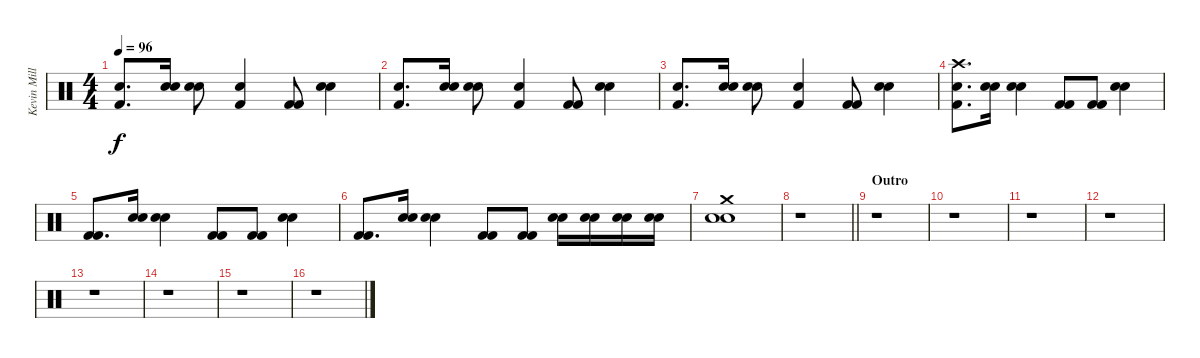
\track ("Kevin Miller (Drums)" "Kevin Mill") {instrument percussion}
\staff {score}
\articulation defaults
\ts (4 4)
\tempo 96
\clef neutral
\ks c
("Electric Snare (hit)" "Kick (hit) 2").8{d dy f} ("Electric Snare (hit)" "Electric Snare (hit)").16 ("Electric Snare (hit)" "Electric Snare (hit)").8 ("Electric Snare (hit)" "Kick (hit) 2").4 ("Kick (hit) 2" "Kick (hit) 2").8 ("Electric Snare (hit)" "Electric Snare (hit)").4 |
("Electric Snare (hit)" "Kick (hit) 2").8{d} ("Electric Snare (hit)" "Electric Snare (hit)").16 ("Electric Snare (hit)" "Electric Snare (hit)").8 ("Electric Snare (hit)" "Kick (hit) 2").4 ("Kick (hit) 2" "Kick (hit) 2").8 ("Electric Snare (hit)" "Electric Snare (hit)").4 |
("Electric Snare (hit)" "Kick (hit) 2").8{d} ("Electric Snare (hit)" "Electric Snare (hit)").16 ("Electric Snare (hit)" "Electric Snare (hit)").8 ("Electric Snare (hit)" "Kick (hit) 2").4 ("Kick (hit) 2" "Kick (hit) 2").8 ("Electric Snare (hit)" "Electric Snare (hit)").4 |
("Electric Snare (hit)" "Kick (hit) 2" "Crash high (hit)").8{d} ("Electric Snare (hit)" "Electric Snare (hit)").16 ("Electric Snare (hit)" "Electric Snare (hit)").4 ("Kick (hit) 2" "Kick (hit) 2").8 ("Kick (hit) 2" "Kick (hit) 2").8 ("Electric Snare (hit)" "Electric Snare (hit)").4 |
("Kick (hit) 2" "Kick (hit) 2").8{d} ("Electric Snare (hit)" "Electric Snare (hit)").16 ("Electric Snare (hit)" "Electric Snare (hit)").4 ("Kick (hit) 2" "Kick (hit) 2").8 ("Kick (hit) 2" "Kick (hit) 2").8 ("Electric Snare (hit)" "Electric Snare (hit)").4 |
("Kick (hit) 2" "Kick (hit) 2").8{d} ("Electric Snare (hit)" "Electric Snare (hit)").16 ("Electric Snare (hit)" "Electric Snare (hit)").4 ("Kick (hit) 2" "Kick (hit) 2").8 ("Kick (hit) 2" "Kick (hit) 2").8 ("Electric Snare (hit)" "Electric Snare (hit)").16 ("Electric Snare (hit)" "Electric Snare (hit)").16 ("Electric Snare (hit)" "Electric Snare (hit)").16 ("Electric Snare (hit)" "Electric Snare (hit)").16 |
("Electric Snare (hit)" "Electric Snare (hit)" "Crash medium (hit)").1 |
\barLineRight lightlight
r.1 |
\section ("" "Outro")
r.1 |
r.1 |
r.1 |
r.1 |
r.1 |
r.1 |
r.1 |
r.1
